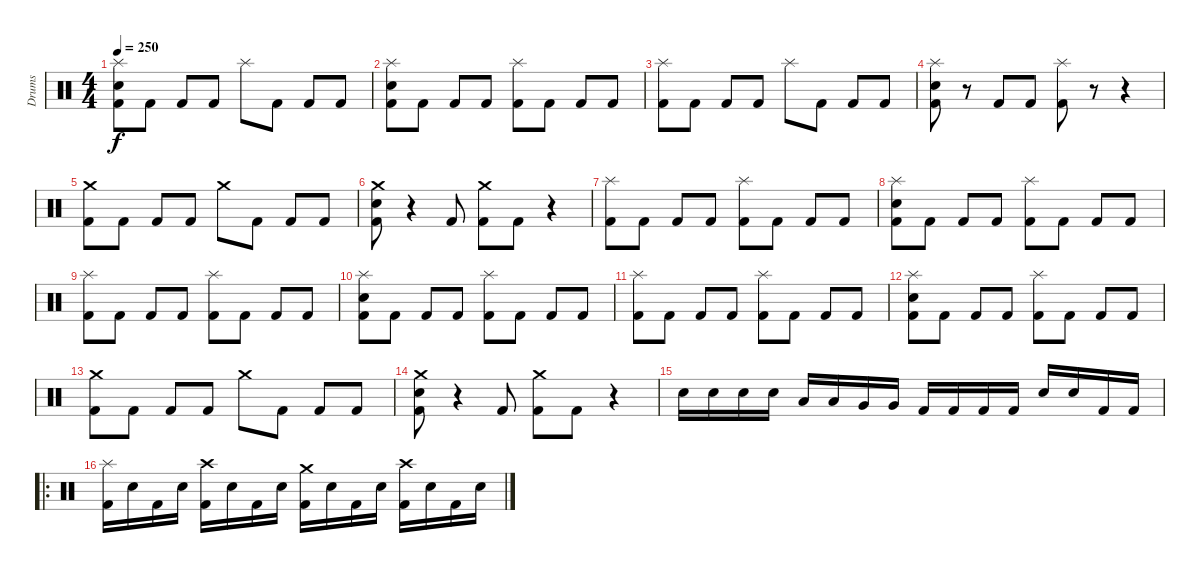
\track ("Drums" "Drums") {instrument percussion}
\staff {score}
\articulation defaults
\ts (4 4)
\tempo 250
\clef neutral
\ks c
("Kick (hit) 2" "Electric Snare (hit)" "Splash (hit)").8{dy f} "Kick (hit) 2".8 "Kick (hit) 2".8 "Kick (hit) 2".8 "Splash (hit)".8 "Kick (hit) 2".8 "Kick (hit) 2".8 "Kick (hit) 2".8 |
("Kick (hit) 2" "Electric Snare (hit)" "Splash (hit)").8 "Kick (hit) 2".8 "Kick (hit) 2".8 "Kick (hit) 2".8 ("Kick (hit) 2" "Splash (hit)").8 "Kick (hit) 2".8 "Kick (hit) 2".8 "Kick (hit) 2".8 |
("Kick (hit) 2" "Splash (hit)").8 "Kick (hit) 2".8 "Kick (hit) 2".8 "Kick (hit) 2".8 "Splash (hit)".8 "Kick (hit) 2".8 "Kick (hit) 2".8 "Kick (hit) 2".8 |
("Kick (hit) 2" "Electric Snare (hit)" "Splash (hit)").8 r.8 "Kick (hit) 2".8 "Kick (hit) 2".8 ("Kick (hit) 2" "Splash (hit)").8 r.8 r.4 |
("Kick (hit) 2" "Crash medium (hit)").8 "Kick (hit) 2".8 "Kick (hit) 2".8 "Kick (hit) 2".8 "Crash medium (hit)".8 "Kick (hit) 2".8 "Kick (hit) 2".8 "Kick (hit) 2".8 |
("Kick (hit) 2" "Electric Snare (hit)" "Crash medium (hit)").8 r.4 "Kick (hit) 2".8 ("Kick (hit) 2" "Crash medium (hit)").8 "Kick (hit) 2".8 r.4 |
("Kick (hit) 2" "Splash (hit)").8 "Kick (hit) 2".8 "Kick (hit) 2".8 "Kick (hit) 2".8 ("Kick (hit) 2" "Splash (hit)").8 "Kick (hit) 2".8 "Kick (hit) 2".8 "Kick (hit) 2".8 |
("Kick (hit) 2" "Electric Snare (hit)" "Splash (hit)").8 "Kick (hit) 2".8 "Kick (hit) 2".8 "Kick (hit) 2".8 ("Kick (hit) 2" "Splash (hit)").8 "Kick (hit) 2".8 "Kick (hit) 2".8 "Kick (hit) 2".8 |
("Kick (hit) 2" "Splash (hit)").8 "Kick (hit) 2".8 "Kick (hit) 2".8 "Kick (hit) 2".8 ("Kick (hit) 2" "Splash (hit)").8 "Kick (hit) 2".8 "Kick (hit) 2".8 "Kick (hit) 2".8 |
("Kick (hit) 2" "Electric Snare (hit)" "Splash (hit)").8 "Kick (hit) 2".8 "Kick (hit) 2".8 "Kick (hit) 2".8 ("Kick (hit) 2" "Splash (hit)").8 "Kick (hit) 2".8 "Kick (hit) 2".8 "Kick (hit) 2".8 |
("Kick (hit) 2" "Splash (hit)").8 "Kick (hit) 2".8 "Kick (hit) 2".8 "Kick (hit) 2".8 ("Kick (hit) 2" "Splash (hit)").8 "Kick (hit) 2".8 "Kick (hit) 2".8 "Kick (hit) 2".8 |
("Kick (hit) 2" "Electric Snare (hit)" "Splash (hit)").8 "Kick (hit) 2".8 "Kick (hit) 2".8 "Kick (hit) 2".8 ("Kick (hit) 2" "Splash (hit)").8 "Kick (hit) 2".8 "Kick (hit) 2".8 "Kick (hit) 2".8 |
("Kick (hit) 2" "Crash medium (hit)").8 "Kick (hit) 2".8 "Kick (hit) 2".8 "Kick (hit) 2".8 "Crash medium (hit)".8 "Kick (hit) 2".8 "Kick (hit) 2".8 "Kick (hit) 2".8 |
("Kick (hit) 2" "Electric Snare (hit)" "Crash medium (hit)").8 r.4 "Kick (hit) 2".8 ("Kick (hit) 2" "Crash medium (hit)").8 "Kick (hit) 2".8 r.4 |
"Electric Snare (hit)".16 "Electric Snare (hit)".16 "Electric Snare (hit)".16 "Electric Snare (hit)".16 "Low Tom (hit)".16 "Low Tom (hit)".16 "Very Low Tom (hit)".16 "Very Low Tom (hit)".16 "Kick (hit) 2".16 "Kick (hit) 2".16 "Kick (hit) 2".16 "Kick (hit) 2".16 "Electric Snare (hit)".16 "Electric Snare (hit)".16 "Kick (hit) 2".16 "Kick (hit) 2".16 |
\ro
("Kick (hit) 2" "Splash (hit)").16 "Electric Snare (hit)".16 "Kick (hit) 2".16 "Electric Snare (hit)".16 ("Kick (hit) 2" "Crash high (hit)").16 "Electric Snare (hit)".16 "Kick (hit) 2".16 "Electric Snare (hit)".16 ("Kick (hit) 2" "Crash medium (hit)").16 "Electric Snare (hit)".16 "Kick (hit) 2".16 "Electric Snare (hit)".16 ("Kick (hit) 2" "Crash high (hit)").16 "Electric Snare (hit)".16 "Kick (hit) 2".16 "Electric Snare (hit)".16
